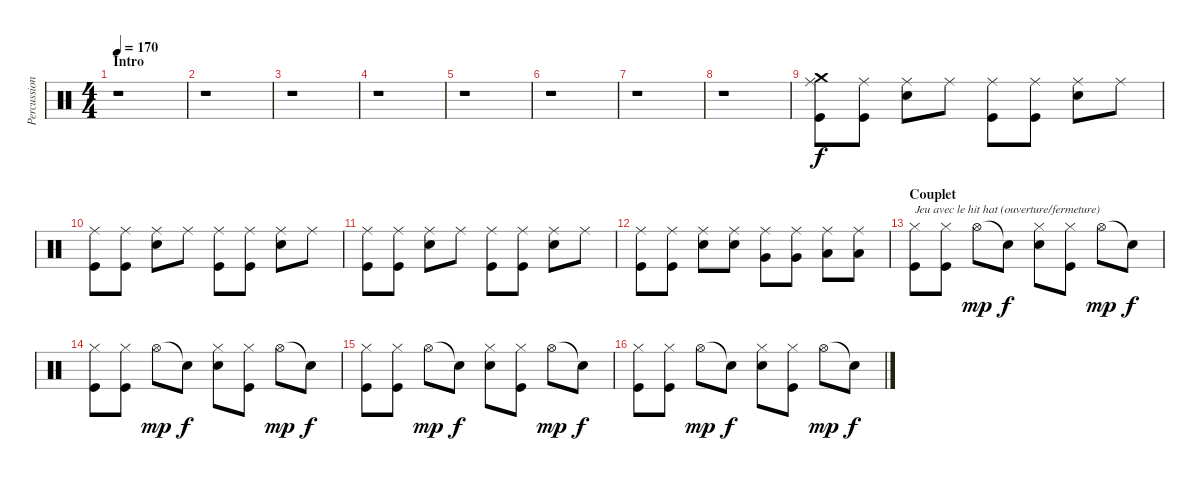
\track ("Percussions" "Percussion") {instrument percussion}
\staff {score}
\articulation defaults
\ts (4 4)
\section ("" "Intro")
\tempo 170
\clef neutral
\ks c
r.1{dy f} |
r.1 |
r.1 |
r.1 |
r.1 |
r.1 |
r.1 |
r.1 |
("Ride (middle)" "Crash medium (hit)" "Kick (hit)").8 ("Ride (middle)" "Kick (hit)").8 ("Ride (middle)" "Electric Snare (hit)").8 "Ride (middle)".8 ("Ride (middle)" "Kick (hit)").8 ("Ride (middle)" "Kick (hit)").8 ("Ride (middle)" "Electric Snare (hit)").8 "Ride (middle)".8 |
("Ride (middle)" "Kick (hit)").8 ("Ride (middle)" "Kick (hit)").8 ("Ride (middle)" "Electric Snare (hit)").8 "Ride (middle)".8 ("Ride (middle)" "Kick (hit)").8 ("Ride (middle)" "Kick (hit)").8 ("Ride (middle)" "Electric Snare (hit)").8 "Ride (middle)".8 |
("Ride (middle)" "Kick (hit)").8 ("Ride (middle)" "Kick (hit)").8 ("Ride (middle)" "Electric Snare (hit)").8 "Ride (middle)".8 ("Ride (middle)" "Kick (hit)").8 ("Ride (middle)" "Kick (hit)").8 ("Ride (middle)" "Electric Snare (hit)").8 "Ride (middle)".8 |
("Ride (middle)" "Kick (hit)").8 ("Ride (middle)" "Kick (hit)").8 ("Ride (middle)" "Electric Snare (hit)").8 ("Ride (middle)" "Electric Snare (hit)").8 ("Ride (middle)" "Very Low Tom (hit)").8 ("Ride (middle)" "Very Low Tom (hit)").8 ("Ride (middle)" "Low Floor Tom (hit)").8 ("Ride (middle)" "Low Floor Tom (hit)").8 |
\section ("" "Couplet")
("Hi-Hat (closed)" "Kick (hit)").8{txt "Jeu avec le hit hat (ouverture/fermeture)"} ("Hi-Hat (closed)" "Kick (hit)").8 "Hi-Hat (open)".8{dy mp} "Snare (hit)"{t}.8{dy f} ("Hi-Hat (closed)" "Electric Snare (hit)").8 ("Hi-Hat (closed)" "Kick (hit)").8 "Hi-Hat (open)".8{dy mp} "Snare (hit)"{t}.8{dy f} |
("Hi-Hat (closed)" "Kick (hit)").8 ("Hi-Hat (closed)" "Kick (hit)").8 "Hi-Hat (open)".8{dy mp} "Snare (hit)"{t}.8{dy f} ("Hi-Hat (closed)" "Electric Snare (hit)").8 ("Hi-Hat (closed)" "Kick (hit)").8 "Hi-Hat (open)".8{dy mp} "Snare (hit)"{t}.8{dy f} |
("Hi-Hat (closed)" "Kick (hit)").8 ("Hi-Hat (closed)" "Kick (hit)").8 "Hi-Hat (open)".8{dy mp} "Snare (hit)"{t}.8{dy f} ("Hi-Hat (closed)" "Electric Snare (hit)").8 ("Hi-Hat (closed)" "Kick (hit)").8 "Hi-Hat (open)".8{dy mp} "Snare (hit)"{t}.8{dy f} |
("Hi-Hat (closed)" "Kick (hit)").8 ("Hi-Hat (closed)" "Kick (hit)").8 "Hi-Hat (open)".8{dy mp} "Snare (hit)"{t}.8{dy f} ("Hi-Hat (closed)" "Electric Snare (hit)").8 ("Hi-Hat (closed)" "Kick (hit)").8 "Hi-Hat (open)".8{dy mp} "Snare (hit)"{t}.8{dy f}
